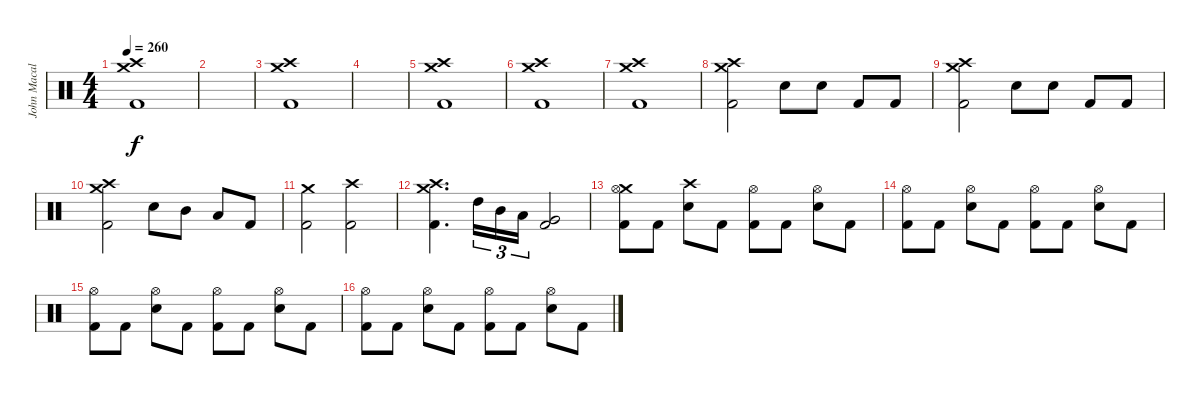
\track ("John Macaluso" "John Macal") {instrument percussion}
\staff {score}
\articulation defaults
\ts (4 4)
\tempo 260
\clef neutral
\ks c
("Crash medium (hit)" "Crash high (hit)" "Kick (hit) 2").1{dy f} |
|
("Crash medium (hit)" "Crash high (hit)" "Kick (hit) 2").1 |
|
("Crash medium (hit)" "Crash high (hit)" "Kick (hit) 2").1 |
("Crash medium (hit)" "Crash high (hit)" "Kick (hit) 2").1 |
("Crash medium (hit)" "Crash high (hit)" "Kick (hit) 2").1 |
("Crash medium (hit)" "Crash high (hit)" "Kick (hit) 2").2 "Snare (hit) 2".8 "Snare (hit) 2".8 "Kick (hit) 2".8 "Kick (hit) 2".8 |
("Crash medium (hit)" "Crash high (hit)" "Kick (hit) 2").2 "Snare (hit) 2".8 "Snare (hit) 2".8 "Kick (hit) 2".8 "Kick (hit) 2".8 |
("Crash medium (hit)" "Crash high (hit)" "Kick (hit) 2").2 "Snare (hit) 2".8 "Mid Tom (hit)".8 "Low Tom (hit)".8 "Kick (hit) 2".8 |
("Crash medium (hit)" "Kick (hit) 2").2 ("Crash high (hit)" "Kick (hit) 2").2 |
("Crash medium (hit)" "Crash high (hit)" "Kick (hit) 2").4{d} "High Tom (hit)".16{tu (3 2)} "Mid Tom (hit)".16{tu (3 2)} "Low Tom (hit)".16{tu (3 2)} ("Very Low Tom (hit)" "Kick (hit) 2").2 |
("Crash medium (hit)" "Hi-Hat (open)" "Kick (hit) 2").8 "Kick (hit) 2".8 ("Crash high (hit)" "Snare (hit) 2").8 "Kick (hit) 2".8 ("Hi-Hat (open)" "Kick (hit) 2").8 "Kick (hit) 2".8 ("Hi-Hat (open)" "Snare (hit) 2").8 "Kick (hit) 2".8 |
("Hi-Hat (open)" "Kick (hit) 2").8 "Kick (hit) 2".8 ("Hi-Hat (open)" "Snare (hit) 2").8 "Kick (hit) 2".8 ("Hi-Hat (open)" "Kick (hit) 2").8 "Kick (hit) 2".8 ("Hi-Hat (open)" "Snare (hit) 2").8 "Kick (hit) 2".8 |
("Hi-Hat (open)" "Kick (hit) 2").8 "Kick (hit) 2".8 ("Hi-Hat (open)" "Snare (hit) 2").8 "Kick (hit) 2".8 ("Hi-Hat (open)" "Kick (hit) 2").8 "Kick (hit) 2".8 ("Hi-Hat (open)" "Snare (hit) 2").8 "Kick (hit) 2".8 |
("Hi-Hat (open)" "Kick (hit) 2").8 "Kick (hit) 2".8 ("Hi-Hat (open)" "Snare (hit) 2").8 "Kick (hit) 2".8 ("Hi-Hat (open)" "Kick (hit) 2").8 "Kick (hit) 2".8 ("Hi-Hat (open)" "Snare (hit) 2").8 "Kick (hit) 2".8
